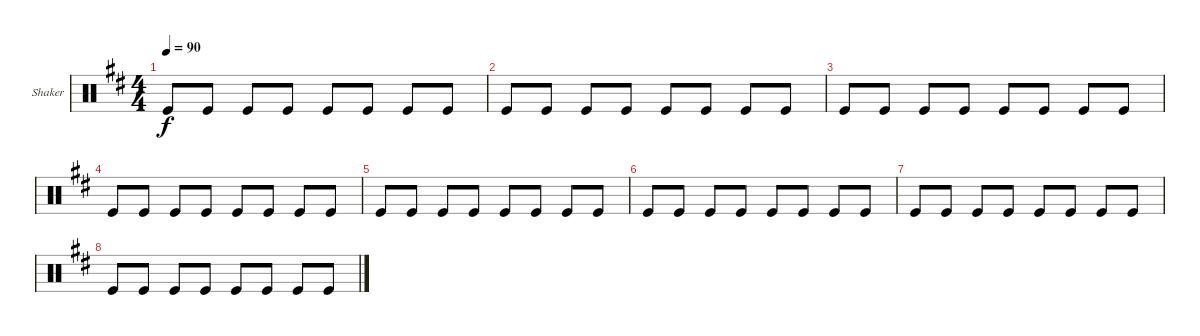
\defaultSystemsLayout 4
\bracketExtendMode groupsimilarinstruments
\firstSystemTrackNameOrientation horizontal
\otherSystemsTrackNameOrientation horizontal
\track ("Shaker" "Shaker") {multiBarRest instrument percussion}
\staff {score}
\articulation defaults
\ts (4 4)
\tempo 90
\clef neutral
\ks d "Kick (hit)".8{dy f} "Kick (hit)".8 "Kick (hit)".8 "Kick (hit)".8 "Kick (hit)".8 "Kick (hit)".8 "Kick (hit)".8 "Kick (hit)".8
|
"Kick (hit)".8 "Kick (hit)".8 "Kick (hit)".8 "Kick (hit)".8 "Kick (hit)".8 "Kick (hit)".8 "Kick (hit)".8 "Kick (hit)".8 |
"Kick (hit)".8 "Kick (hit)".8 "Kick (hit)".8 "Kick (hit)".8 "Kick (hit)".8 "Kick (hit)".8 "Kick (hit)".8 "Kick (hit)".8 |
"Kick (hit)".8 "Kick (hit)".8 "Kick (hit)".8 "Kick (hit)".8 "Kick (hit)".8 "Kick (hit)".8 "Kick (hit)".8 "Kick (hit)".8 |
"Kick (hit)".8 "Kick (hit)".8 "Kick (hit)".8 "Kick (hit)".8 "Kick (hit)".8 "Kick (hit)".8 "Kick (hit)".8 "Kick (hit)".8 |
"Kick (hit)".8 "Kick (hit)".8 "Kick (hit)".8 "Kick (hit)".8 "Kick (hit)".8 "Kick (hit)".8 "Kick (hit)".8 "Kick (hit)".8 |
"Kick (hit)".8 "Kick (hit)".8 "Kick (hit)".8 "Kick (hit)".8 "Kick (hit)".8 "Kick (hit)".8 "Kick (hit)".8 "Kick (hit)".8 |
"Kick (hit)".8 "Kick (hit)".8 "Kick (hit)".8 "Kick (hit)".8 "Kick (hit)".8 "Kick (hit)".8 "Kick (hit)".8 "Kick (hit)".8
